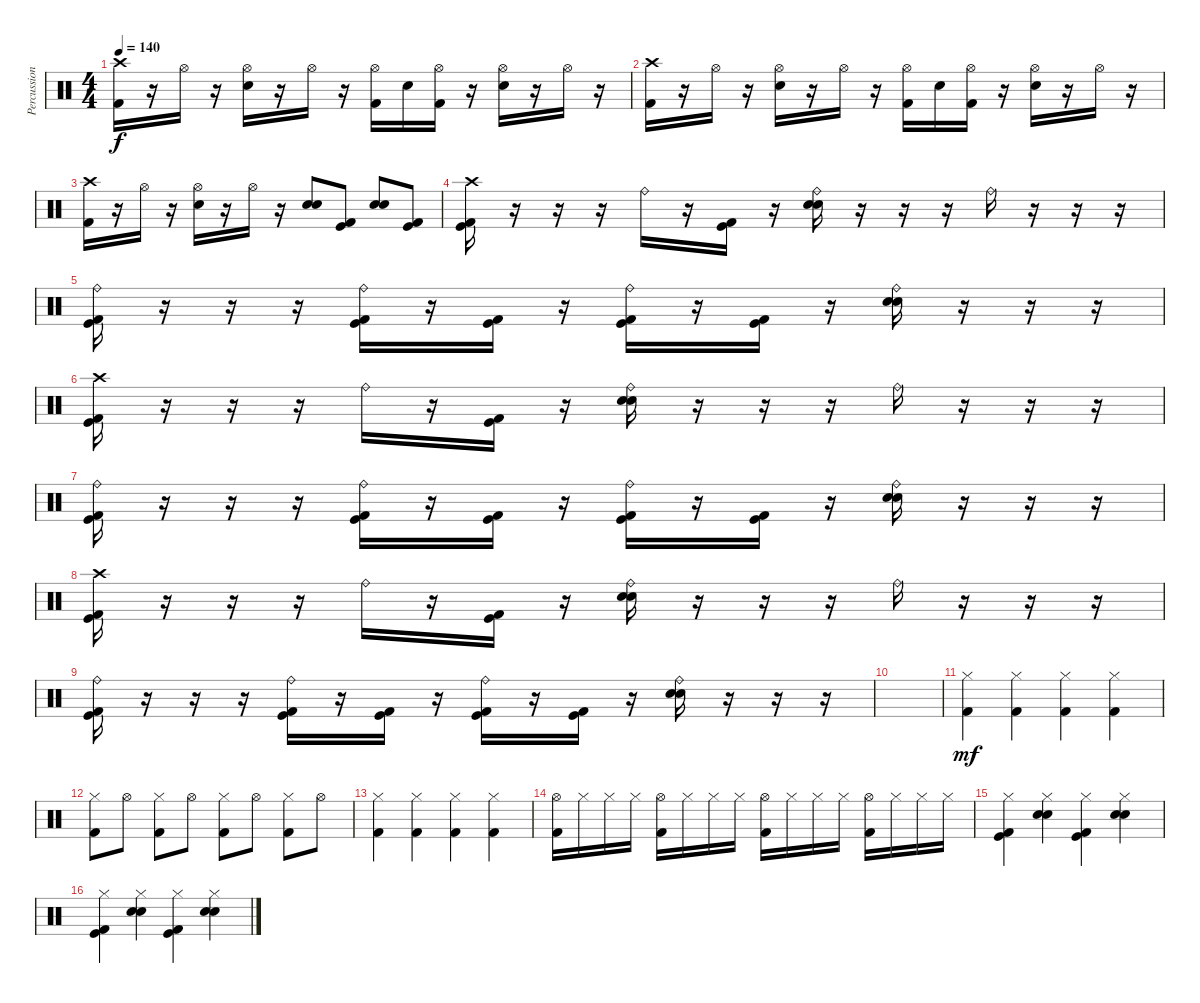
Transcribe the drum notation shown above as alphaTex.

\track ("Percussions" "Percussion") {instrument percussion}
\staff {score}
\articulation defaults
\ts (4 4)
\tempo 140
\clef neutral
\ks c
("Crash high (hit)" "Kick (hit) 2").16{dy f} r.16 "Hi-Hat (open)".16 r.16 ("Hi-Hat (open)" "Electric Snare (hit)").16 r.16 "Hi-Hat (open)".16 r.16 ("Hi-Hat (open)" "Kick (hit) 2").16 "Electric Snare (hit)".16 ("Hi-Hat (open)" "Kick (hit) 2").16 r.16 ("Hi-Hat (open)" "Electric Snare (hit)").16 r.16 "Hi-Hat (open)".16 r.16 |
("Crash high (hit)" "Kick (hit) 2").16 r.16 "Hi-Hat (open)".16 r.16 ("Hi-Hat (open)" "Electric Snare (hit)").16 r.16 "Hi-Hat (open)".16 r.16 ("Hi-Hat (open)" "Kick (hit) 2").16 "Electric Snare (hit)".16 ("Hi-Hat (open)" "Kick (hit) 2").16 r.16 ("Hi-Hat (open)" "Electric Snare (hit)").16 r.16 "Hi-Hat (open)".16 r.16 |
("Crash high (hit)" "Kick (hit) 2").16 r.16 "Hi-Hat (open)".16 r.16 ("Hi-Hat (open)" "Electric Snare (hit)").16 r.16 "Hi-Hat (open)".16 r.16 ("Snare (hit) 2" "Electric Snare (hit)").8 ("Kick (hit)" "Kick (hit) 2").8 ("Snare (hit) 2" "Electric Snare (hit)").8 ("Kick (hit)" "Kick (hit) 2").8 |
("Crash high (hit)" "Kick (hit)" "Kick (hit) 2").16 r.16 r.16 r.16 "Ride (bell)".16 r.16 ("Kick (hit)" "Kick (hit) 2").16 r.16 ("Ride (bell)" "Snare (hit) 2" "Electric Snare (hit)").16 r.16 r.16 r.16 "Ride (bell)".16 r.16 r.16 r.16 |
("Ride (bell)" "Kick (hit)" "Kick (hit) 2").16 r.16 r.16 r.16 ("Ride (bell)" "Kick (hit)" "Kick (hit) 2").16 r.16 ("Kick (hit)" "Kick (hit) 2").16 r.16 ("Ride (bell)" "Kick (hit)" "Kick (hit) 2").16 r.16 ("Kick (hit)" "Kick (hit) 2").16 r.16 ("Ride (bell)" "Snare (hit) 2" "Electric Snare (hit)").16 r.16 r.16 r.16 |
("Crash high (hit)" "Kick (hit)" "Kick (hit) 2").16 r.16 r.16 r.16 "Ride (bell)".16 r.16 ("Kick (hit)" "Kick (hit) 2").16 r.16 ("Ride (bell)" "Snare (hit) 2" "Electric Snare (hit)").16 r.16 r.16 r.16 "Ride (bell)".16 r.16 r.16 r.16 |
("Ride (bell)" "Kick (hit)" "Kick (hit) 2").16 r.16 r.16 r.16 ("Ride (bell)" "Kick (hit)" "Kick (hit) 2").16 r.16 ("Kick (hit)" "Kick (hit) 2").16 r.16 ("Ride (bell)" "Kick (hit)" "Kick (hit) 2").16 r.16 ("Kick (hit)" "Kick (hit) 2").16 r.16 ("Ride (bell)" "Snare (hit) 2" "Electric Snare (hit)").16 r.16 r.16 r.16 |
("Crash high (hit)" "Kick (hit)" "Kick (hit) 2").16 r.16 r.16 r.16 "Ride (bell)".16 r.16 ("Kick (hit)" "Kick (hit) 2").16 r.16 ("Ride (bell)" "Snare (hit) 2" "Electric Snare (hit)").16 r.16 r.16 r.16 "Ride (bell)".16 r.16 r.16 r.16 |
("Ride (bell)" "Kick (hit)" "Kick (hit) 2").16 r.16 r.16 r.16 ("Ride (bell)" "Kick (hit)" "Kick (hit) 2").16 r.16 ("Kick (hit)" "Kick (hit) 2").16 r.16 ("Ride (bell)" "Kick (hit)" "Kick (hit) 2").16 r.16 ("Kick (hit)" "Kick (hit) 2").16 r.16 ("Ride (bell)" "Snare (hit) 2" "Electric Snare (hit)").16 r.16 r.16 r.16 |
|
("Hi-Hat (closed)" "Kick (hit) 2").4{dy mf} ("Hi-Hat (closed)" "Kick (hit) 2").4 ("Hi-Hat (closed)" "Kick (hit) 2").4 ("Hi-Hat (closed)" "Kick (hit) 2").4 |
("Hi-Hat (closed)" "Kick (hit) 2").8 "Hi-Hat (open)".8 ("Hi-Hat (closed)" "Kick (hit) 2").8 "Hi-Hat (open)".8 ("Hi-Hat (closed)" "Kick (hit) 2").8 "Hi-Hat (open)".8 ("Hi-Hat (closed)" "Kick (hit) 2").8 "Hi-Hat (open)".8 |
("Hi-Hat (closed)" "Kick (hit) 2").4 ("Hi-Hat (closed)" "Kick (hit) 2").4 ("Hi-Hat (closed)" "Kick (hit) 2").4 ("Hi-Hat (closed)" "Kick (hit) 2").4 |
("Hi-Hat (open)" "Kick (hit) 2").16 "Hi-Hat (closed)".16 "Hi-Hat (closed)".16 "Hi-Hat (closed)".16 ("Hi-Hat (open)" "Kick (hit) 2").16 "Hi-Hat (closed)".16 "Hi-Hat (closed)".16 "Hi-Hat (closed)".16 ("Hi-Hat (open)" "Kick (hit) 2").16 "Hi-Hat (closed)".16 "Hi-Hat (closed)".16 "Hi-Hat (closed)".16 ("Hi-Hat (open)" "Kick (hit) 2").16 "Hi-Hat (closed)".16 "Hi-Hat (closed)".16 "Hi-Hat (closed)".16 |
("Hi-Hat (closed)" "Kick (hit)" "Kick (hit) 2").4 ("Hi-Hat (closed)" "Snare (hit) 2" "Electric Snare (hit)").4 ("Hi-Hat (closed)" "Kick (hit)" "Kick (hit) 2").4 ("Hi-Hat (closed)" "Snare (hit) 2" "Electric Snare (hit)").4 |
("Hi-Hat (closed)" "Kick (hit)" "Kick (hit) 2").4 ("Hi-Hat (closed)" "Snare (hit) 2" "Electric Snare (hit)").4 ("Hi-Hat (closed)" "Kick (hit)" "Kick (hit) 2").4 ("Hi-Hat (closed)" "Snare (hit) 2" "Electric Snare (hit)").4
